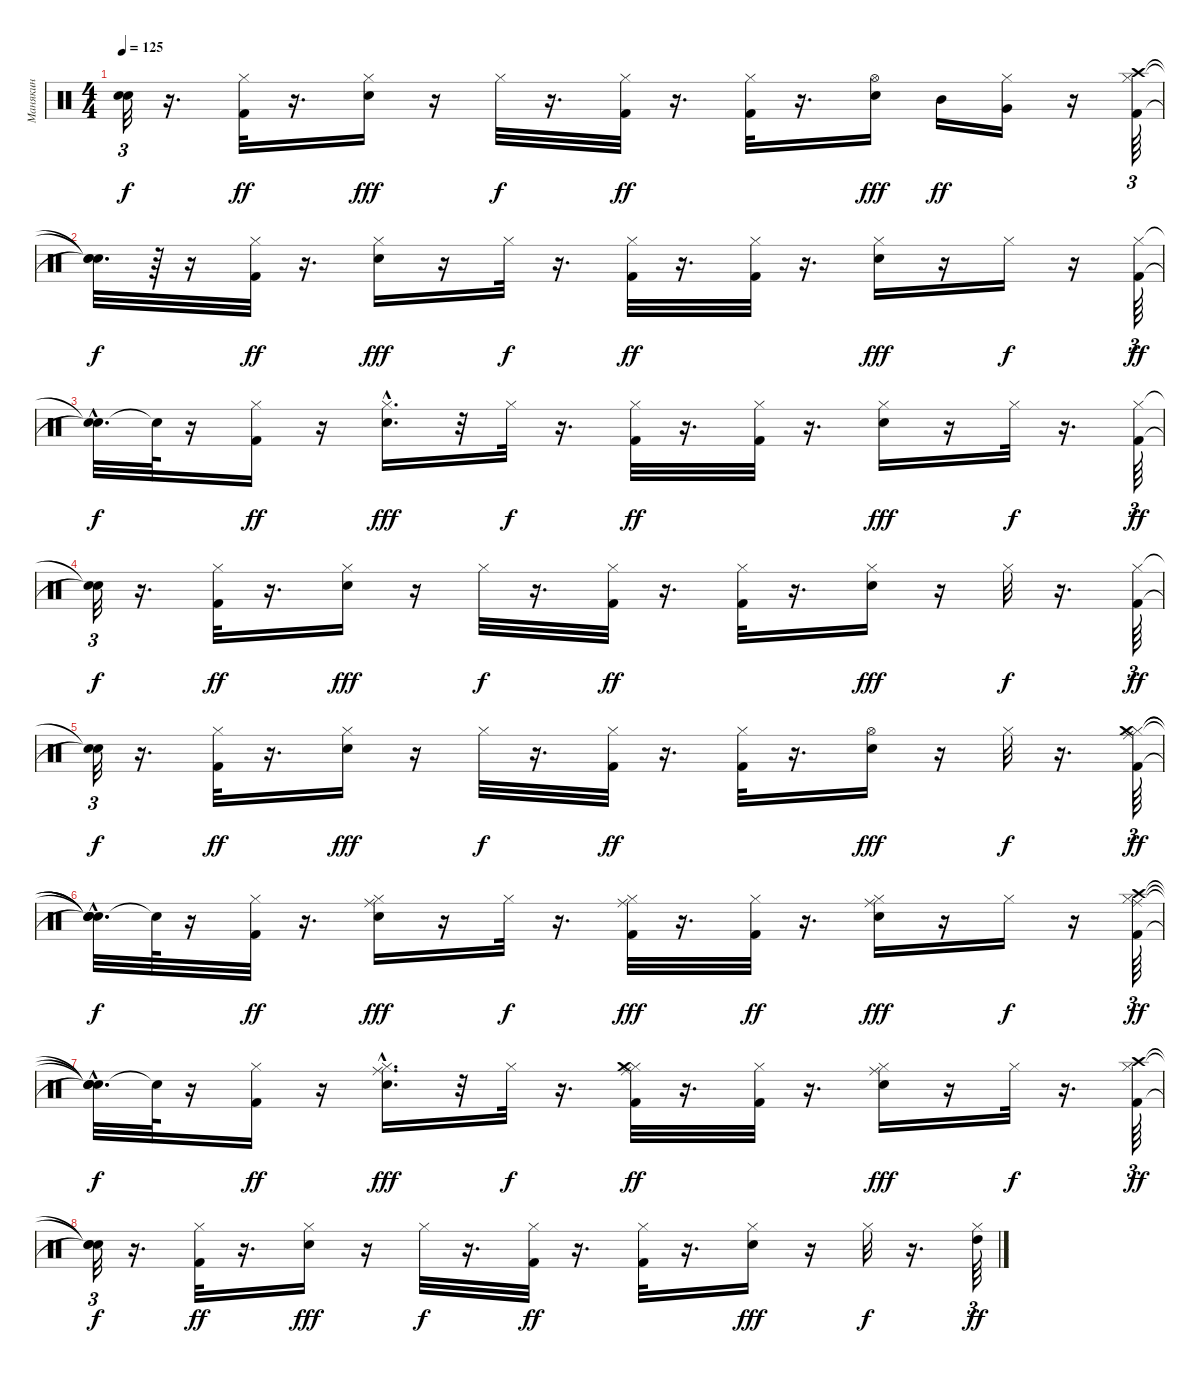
\track ("Манякин" "Манякин") {instrument percussion}
\staff {score}
\articulation defaults
\ts (4 4)
\tempo 125
\clef neutral
\ks c
("Snare (hit)"{t} "Snare (hit)"{t}).32{tu (3 2) dy f} r.16{d} ("Kick (hit) 2" "Hi-Hat (closed)").32{dy ff} r.16{d} ("Snare (hit) 2" "Hi-Hat (closed)").16{dy fff} r.16 "Hi-Hat (closed)".32{dy f} r.16{d} ("Kick (hit) 2" "Hi-Hat (closed)").32{dy ff} r.16{d} ("Kick (hit) 2" "Hi-Hat (closed)").32 r.16{d} ("Snare (hit) 2" "Hi-Hat (open)").16{dy fff} "Mid Tom (hit)".16{dy ff} ("Hi-Hat (closed)" "Very Low Tom (hit)").16 r.16 ("Kick (hit) 2" "Hi-Hat (closed)" "Crash high (hit)").64{tu (3 2)} |
("Snare (hit)"{t} "Snare (hit)"{t} "Snare (hit)"{t}).32{d dy f} r.64 r.16 ("Kick (hit) 2" "Hi-Hat (closed)").32{dy ff} r.16{d} ("Snare (hit) 2" "Hi-Hat (closed)").16{dy fff} r.16 "Hi-Hat (closed)".32{dy f} r.16{d} ("Kick (hit) 2" "Hi-Hat (closed)").32{dy ff} r.16{d} ("Kick (hit) 2" "Hi-Hat (closed)").32 r.16{d} ("Snare (hit) 2" "Hi-Hat (closed)").16{dy fff} r.16 "Hi-Hat (closed)".16{dy f} r.16 ("Kick (hit) 2" "Hi-Hat (closed)").64{tu (3 2) dy ff} |
("Snare (hit)"{t} "Snare (hit)"{hac t}).32{d dy f} "Snare (hit)"{t}.64 r.16 ("Kick (hit) 2" "Hi-Hat (closed)").16{dy ff} r.16 ("Snare (hit) 2"{hac} "Hi-Hat (closed)").16{d dy fff} r.32 "Hi-Hat (closed)".32{dy f} r.16{d} ("Kick (hit) 2" "Hi-Hat (closed)").32{dy ff} r.16{d} ("Kick (hit) 2" "Hi-Hat (closed)").32 r.16{d} ("Snare (hit) 2" "Hi-Hat (closed)").16{dy fff} r.16 "Hi-Hat (closed)".32{dy f} r.16{d} ("Kick (hit) 2" "Hi-Hat (closed)").64{tu (3 2) dy ff} |
("Snare (hit)"{t} "Snare (hit)"{t}).32{tu (3 2) dy f} r.16{d} ("Kick (hit) 2" "Hi-Hat (closed)").32{dy ff} r.16{d} ("Snare (hit) 2" "Hi-Hat (closed)").16{dy fff} r.16 "Hi-Hat (closed)".32{dy f} r.16{d} ("Kick (hit) 2" "Hi-Hat (closed)").32{dy ff} r.16{d} ("Kick (hit) 2" "Hi-Hat (closed)").32 r.16{d} ("Snare (hit) 2" "Hi-Hat (closed)").16{dy fff} r.16 "Hi-Hat (closed)".32{dy f} r.16{d} ("Kick (hit) 2" "Hi-Hat (closed)").64{tu (3 2) dy ff} |
("Snare (hit)"{t} "Snare (hit)"{t}).32{tu (3 2) dy f} r.16{d} ("Kick (hit) 2" "Hi-Hat (closed)").32{dy ff} r.16{d} ("Snare (hit) 2" "Hi-Hat (closed)").16{dy fff} r.16 "Hi-Hat (closed)".32{dy f} r.16{d} ("Kick (hit) 2" "Hi-Hat (closed)").32{dy ff} r.16{d} ("Kick (hit) 2" "Hi-Hat (closed)").32 r.16{d} ("Snare (hit) 2" "Hi-Hat (open)").16{dy fff} r.16 "Hi-Hat (closed)".32{dy f} r.16{d} ("Kick (hit) 2" "Hi-Hat (closed)" "Ride (middle)" "Crash medium (hit)").64{tu (3 2) dy ff} |
("Snare (hit)"{t} "Snare (hit)"{t} "Snare (hit)"{t} "Snare (hit)"{hac t}).32{d dy f} "Snare (hit)"{t}.64 r.16 ("Kick (hit) 2" "Hi-Hat (closed)").32{dy ff} r.16{d} ("Snare (hit) 2" "Hi-Hat (closed)" "Ride (middle)").16{dy fff} r.16 "Hi-Hat (closed)".32{dy f} r.16{d} ("Kick (hit) 2" "Hi-Hat (closed)" "Ride (middle)").32{dy fff} r.16{d} ("Kick (hit) 2" "Hi-Hat (closed)").32{dy ff} r.16{d} ("Snare (hit) 2" "Hi-Hat (closed)" "Ride (middle)").16{dy fff} r.16 "Hi-Hat (closed)".16{dy f} r.16 ("Kick (hit) 2" "Hi-Hat (closed)" "Ride (middle)" "Crash high (hit)").64{tu (3 2) dy ff} |
("Snare (hit)"{t} "Snare (hit)"{hac t} "Snare (hit)"{t} "Snare (hit)"{t}).32{d dy f} "Snare (hit)"{t}.64 r.16 ("Kick (hit) 2" "Hi-Hat (closed)").16{dy ff} r.16 ("Snare (hit) 2"{hac} "Hi-Hat (closed)" "Ride (middle)").16{d dy fff} r.32 "Hi-Hat (closed)".32{dy f} r.16{d} ("Kick (hit) 2" "Hi-Hat (closed)" "Ride (middle)" "Crash medium (hit)").32{dy ff} r.16{d} ("Kick (hit) 2" "Hi-Hat (closed)").32 r.16{d} ("Snare (hit) 2" "Hi-Hat (closed)" "Ride (middle)").16{dy fff} r.16 "Hi-Hat (closed)".32{dy f} r.16{d} ("Kick (hit) 2" "Hi-Hat (closed)" "Crash high (hit)").64{tu (3 2) dy ff} |
("Snare (hit)"{t} "Snare (hit)"{t} "Snare (hit)"{t}).32{tu (3 2) dy f} r.16{d} ("Kick (hit) 2" "Hi-Hat (closed)").32{dy ff} r.16{d} ("Snare (hit) 2" "Hi-Hat (closed)").16{dy fff} r.16 "Hi-Hat (closed)".32{dy f} r.16{d} ("Kick (hit) 2" "Hi-Hat (closed)").32{dy ff} r.16{d} ("Kick (hit) 2" "Hi-Hat (closed)").32 r.16{d} ("Snare (hit) 2" "Hi-Hat (closed)").16{dy fff} r.16 "Hi-Hat (closed)".32{dy f} r.16{d} ("Hi-Hat (closed)" "High Tom (hit)").64{tu (3 2) dy ff}
